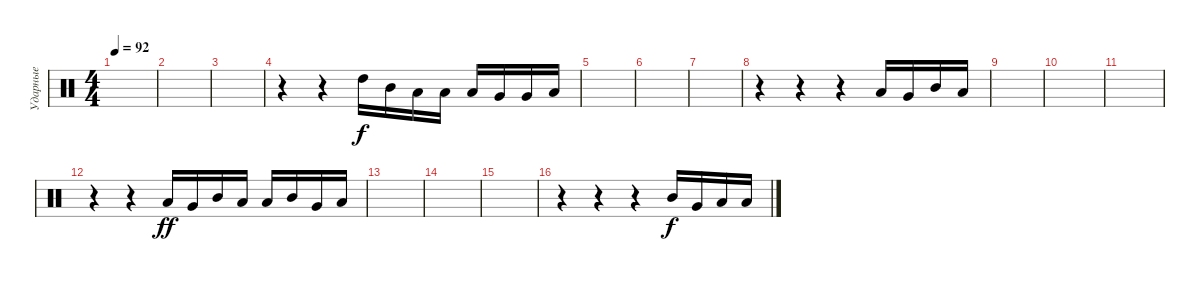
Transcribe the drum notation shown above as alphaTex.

\track ("Ударные" "Ударные") {instrument percussion}
\staff {score}
\articulation defaults
\ts (4 4)
\tempo 92
\clef neutral
\ks c
|
|
|
r.4 r.4 "High Tom (hit)".16 "Mid Tom (hit)".16 "Low Tom (hit)".16 "Low Tom (hit)".16 "Low Tom (hit)".16 "Very Low Tom (hit)".16 "Very Low Tom (hit)".16 "Low Floor Tom (hit)".16 |
|
|
|
r.4 r.4 r.4 "Low Tom (hit)".16 "Very Low Tom (hit)".16 "Mid Tom (hit)".16 "Low Floor Tom (hit)".16 |
|
|
|
r.4 r.4 "Low Tom (hit)".16{dy ff} "Very Low Tom (hit)".16 "Mid Tom (hit)".16 "Low Floor Tom (hit)".16 "Low Tom (hit)".16 "Mid Tom (hit)".16 "Very Low Tom (hit)".16 "Low Floor Tom (hit)".16 |
|
|
|
r.4 r.4 r.4 "Mid Tom (hit)".16{dy f} "Very Low Tom (hit)".16 "Low Tom (hit)".16 "Low Floor Tom (hit)".16
